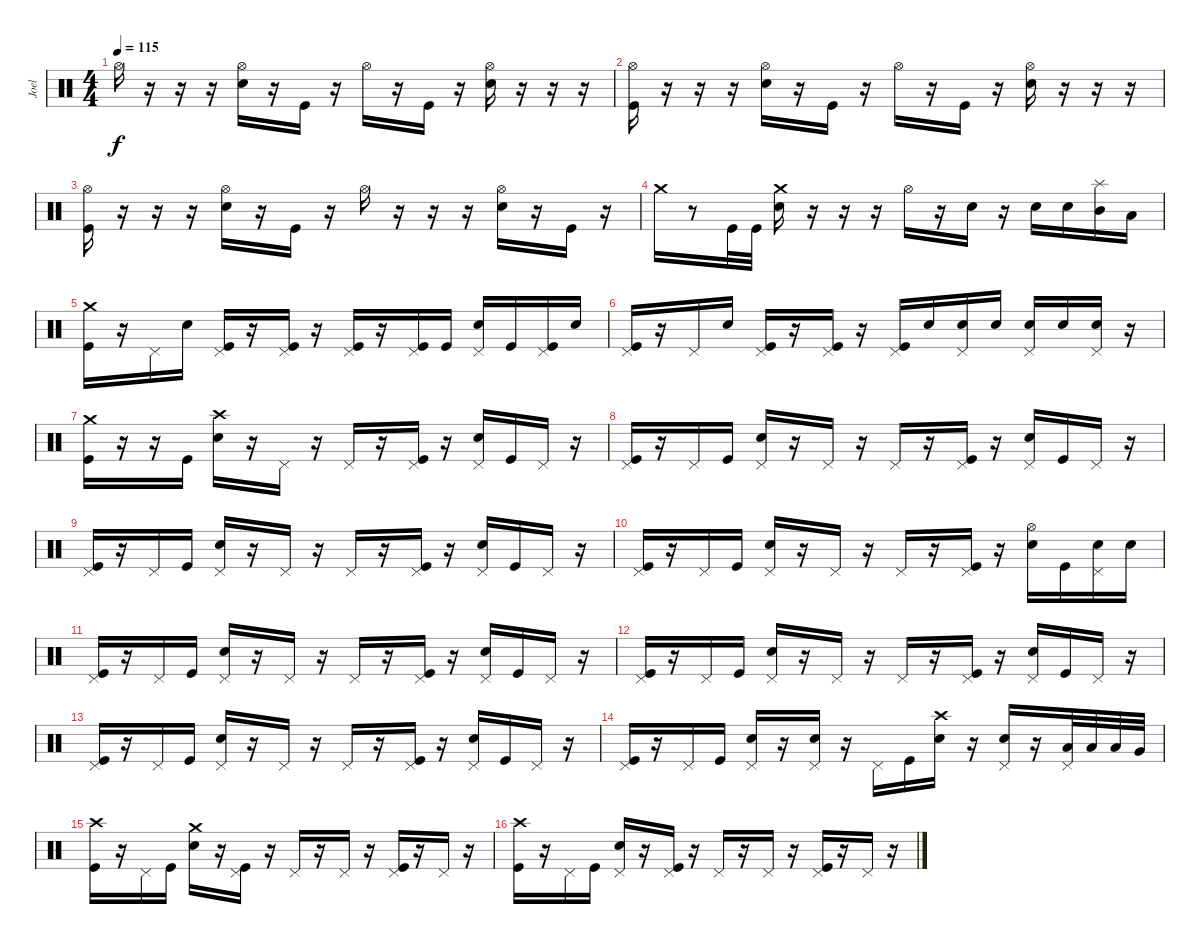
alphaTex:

\track ("Joel" "Joel") {instrument percussion}
\staff {score}
\articulation defaults
\ts (4 4)
\tempo 115
\clef neutral
\ks c "Hi-Hat (open)".16{dy f}
r.16 r.16 r.16 ("Hi-Hat (open)" "Electric Snare (hit)").16 r.16 "Kick (hit)".16 r.16 "Hi-Hat (open)".16 r.16 "Kick (hit)".16 r.16 ("Hi-Hat (open)" "Electric Snare (hit)").16 r.16 r.16 r.16 |
("Hi-Hat (open)" "Kick (hit)").16 r.16 r.16 r.16 ("Hi-Hat (open)" "Electric Snare (hit)").16 r.16 "Kick (hit)".16 r.16 "Hi-Hat (open)".16 r.16 "Kick (hit)".16 r.16 ("Hi-Hat (open)" "Electric Snare (hit)").16 r.16 r.16 r.16 |
("Hi-Hat (open)" "Kick (hit)").16 r.16 r.16 r.16 ("Hi-Hat (open)" "Electric Snare (hit)").16 r.16 "Kick (hit)".16 r.16 "Hi-Hat (open)".16 r.16 r.16 r.16 ("Hi-Hat (open)" "Electric Snare (hit)").16 r.16 "Kick (hit)".16 r.16 |
"Crash medium (hit)".16 r.8 "Kick (hit)".32 "Kick (hit)".32 ("Crash medium (hit)" "Electric Snare (hit)").16 r.16 r.16 r.16 "Hi-Hat (open)".16 r.16 "Electric Snare (hit)".16 r.16 "Electric Snare (hit)".16 "Electric Snare (hit)".16 ("Splash (hit)" "Mid Tom (hit)").16 "Low Tom (hit)".16 |
("Crash medium (hit)" "Kick (hit)").16 r.16 "Pedal Hi-Hat (hit)".16 "Electric Snare (hit)".16 ("Pedal Hi-Hat (hit)" "Kick (hit)").16 r.16 ("Pedal Hi-Hat (hit)" "Kick (hit)").16 r.16 ("Pedal Hi-Hat (hit)" "Kick (hit)").16 r.16 ("Pedal Hi-Hat (hit)" "Kick (hit)").16 "Kick (hit)".16 ("Pedal Hi-Hat (hit)" "Electric Snare (hit)").16 "Kick (hit)".16 ("Pedal Hi-Hat (hit)" "Kick (hit)").16 "Electric Snare (hit)".16 |
("Pedal Hi-Hat (hit)" "Kick (hit)").16 r.16 "Pedal Hi-Hat (hit)".16 "Electric Snare (hit)".16 ("Pedal Hi-Hat (hit)" "Kick (hit)").16 r.16 ("Pedal Hi-Hat (hit)" "Kick (hit)").16 r.16 ("Pedal Hi-Hat (hit)" "Kick (hit)").16 "Electric Snare (hit)".16 ("Pedal Hi-Hat (hit)" "Electric Snare (hit)").16 "Electric Snare (hit)".16 ("Pedal Hi-Hat (hit)" "Electric Snare (hit)").16 "Electric Snare (hit)".16 ("Pedal Hi-Hat (hit)" "Electric Snare (hit)").16 r.16 |
("Crash medium (hit)" "Kick (hit)").16 r.16 r.16 "Kick (hit)".16 ("Crash high (hit)" "Electric Snare (hit)").16 r.16 "Pedal Hi-Hat (hit)".16 r.16 "Pedal Hi-Hat (hit)".16 r.16 ("Pedal Hi-Hat (hit)" "Kick (hit)").16 r.16 ("Pedal Hi-Hat (hit)" "Electric Snare (hit)").16 "Kick (hit)".16 "Pedal Hi-Hat (hit)".16 r.16 |
("Pedal Hi-Hat (hit)" "Kick (hit)").16 r.16 "Pedal Hi-Hat (hit)".16 "Kick (hit)".16 ("Pedal Hi-Hat (hit)" "Electric Snare (hit)").16 r.16 "Pedal Hi-Hat (hit)".16 r.16 "Pedal Hi-Hat (hit)".16 r.16 ("Pedal Hi-Hat (hit)" "Kick (hit)").16 r.16 ("Pedal Hi-Hat (hit)" "Electric Snare (hit)").16 "Kick (hit)".16 "Pedal Hi-Hat (hit)".16 r.16 |
("Pedal Hi-Hat (hit)" "Kick (hit)").16 r.16 "Pedal Hi-Hat (hit)".16 "Kick (hit)".16 ("Pedal Hi-Hat (hit)" "Electric Snare (hit)").16 r.16 "Pedal Hi-Hat (hit)".16 r.16 "Pedal Hi-Hat (hit)".16 r.16 ("Pedal Hi-Hat (hit)" "Kick (hit)").16 r.16 ("Pedal Hi-Hat (hit)" "Electric Snare (hit)").16 "Kick (hit)".16 "Pedal Hi-Hat (hit)".16 r.16 |
("Pedal Hi-Hat (hit)" "Kick (hit)").16 r.16 "Pedal Hi-Hat (hit)".16 "Kick (hit)".16 ("Pedal Hi-Hat (hit)" "Electric Snare (hit)").16 r.16 "Pedal Hi-Hat (hit)".16 r.16 "Pedal Hi-Hat (hit)".16 r.16 ("Pedal Hi-Hat (hit)" "Kick (hit)").16 r.16 ("Hi-Hat (open)" "Electric Snare (hit)").16 "Kick (hit)".16 ("Pedal Hi-Hat (hit)" "Electric Snare (hit)").16 "Electric Snare (hit)".16 |
("Pedal Hi-Hat (hit)" "Kick (hit)").16 r.16 "Pedal Hi-Hat (hit)".16 "Kick (hit)".16 ("Pedal Hi-Hat (hit)" "Electric Snare (hit)").16 r.16 "Pedal Hi-Hat (hit)".16 r.16 "Pedal Hi-Hat (hit)".16 r.16 ("Pedal Hi-Hat (hit)" "Kick (hit)").16 r.16 ("Pedal Hi-Hat (hit)" "Electric Snare (hit)").16 "Kick (hit)".16 "Pedal Hi-Hat (hit)".16 r.16 |
("Pedal Hi-Hat (hit)" "Kick (hit)").16 r.16 "Pedal Hi-Hat (hit)".16 "Kick (hit)".16 ("Pedal Hi-Hat (hit)" "Electric Snare (hit)").16 r.16 "Pedal Hi-Hat (hit)".16 r.16 "Pedal Hi-Hat (hit)".16 r.16 ("Pedal Hi-Hat (hit)" "Kick (hit)").16 r.16 ("Pedal Hi-Hat (hit)" "Electric Snare (hit)").16 "Kick (hit)".16 "Pedal Hi-Hat (hit)".16 r.16 |
("Pedal Hi-Hat (hit)" "Kick (hit)").16 r.16 "Pedal Hi-Hat (hit)".16 "Kick (hit)".16 ("Pedal Hi-Hat (hit)" "Electric Snare (hit)").16 r.16 "Pedal Hi-Hat (hit)".16 r.16 "Pedal Hi-Hat (hit)".16 r.16 ("Pedal Hi-Hat (hit)" "Kick (hit)").16 r.16 ("Pedal Hi-Hat (hit)" "Electric Snare (hit)").16 "Kick (hit)".16 "Pedal Hi-Hat (hit)".16 r.16 |
("Pedal Hi-Hat (hit)" "Kick (hit)").16 r.16 "Pedal Hi-Hat (hit)".16 "Kick (hit)".16 ("Pedal Hi-Hat (hit)" "Electric Snare (hit)").16 r.16 ("Pedal Hi-Hat (hit)" "Electric Snare (hit)").16 r.16 "Pedal Hi-Hat (hit)".16 "Kick (hit)".16 ("Crash high (hit)" "Electric Snare (hit)").16 r.16 ("Pedal Hi-Hat (hit)" "Electric Snare (hit)").16 r.16 ("Pedal Hi-Hat (hit)" "Low Tom (hit)").32 "Low Tom (hit)".32 "Low Tom (hit)".32 "Very Low Tom (hit)".32 |
("Crash high (hit)" "Kick (hit)").16 r.16 "Pedal Hi-Hat (hit)".16 "Kick (hit)".16 ("Crash medium (hit)" "Electric Snare (hit)").16 r.16 ("Pedal Hi-Hat (hit)" "Kick (hit)").16 r.16 "Pedal Hi-Hat (hit)".16 r.16 "Pedal Hi-Hat (hit)".16 r.16 ("Pedal Hi-Hat (hit)" "Kick (hit)").16 r.16 "Pedal Hi-Hat (hit)".16 r.16 |
("Crash high (hit)" "Kick (hit)").16 r.16 "Pedal Hi-Hat (hit)".16 "Kick (hit)".16 ("Pedal Hi-Hat (hit)" "Electric Snare (hit)").16 r.16 ("Pedal Hi-Hat (hit)" "Kick (hit)").16 r.16 "Pedal Hi-Hat (hit)".16 r.16 "Pedal Hi-Hat (hit)".16 r.16 ("Pedal Hi-Hat (hit)" "Kick (hit)").16 r.16 "Pedal Hi-Hat (hit)".16 r.16
